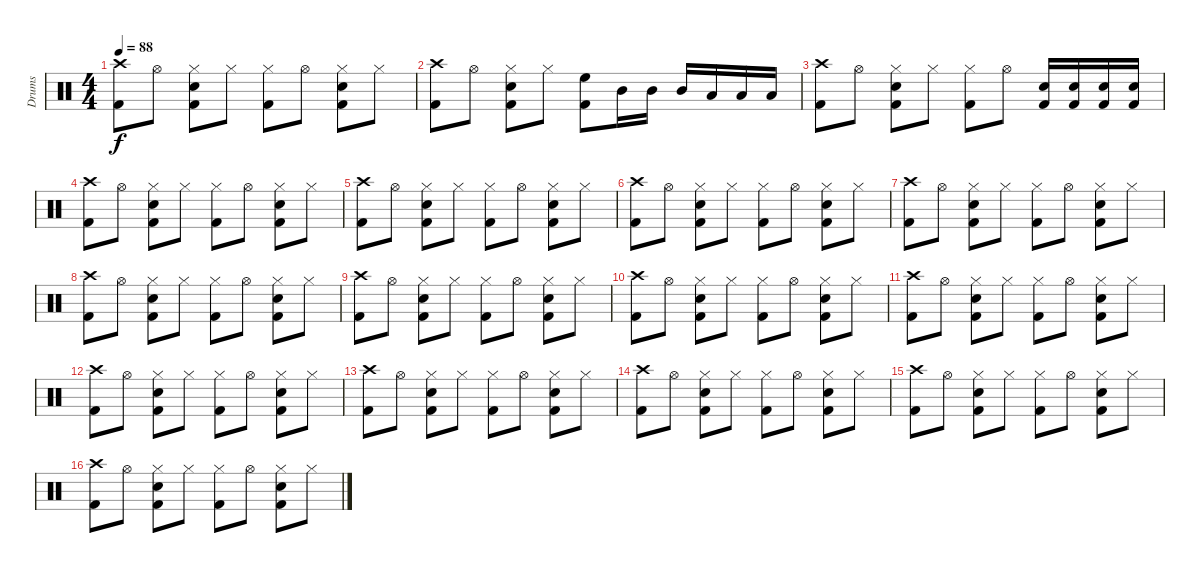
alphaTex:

\track ("Drums" "Drums") {instrument percussion}
\staff {score}
\articulation defaults
\ts (4 4)
\tempo 88
\clef neutral
\ks c
("Crash high (hit)" "Kick (hit) 2").8{dy f} "Hi-Hat (open)".8 ("Hi-Hat (closed)" "Snare (hit) 2" "Kick (hit) 2").8 "Hi-Hat (closed)".8 ("Hi-Hat (closed)" "Kick (hit) 2").8 "Hi-Hat (open)".8 ("Hi-Hat (closed)" "Snare (hit) 2" "Kick (hit) 2").8 "Hi-Hat (closed)".8 |
("Crash high (hit)" "Kick (hit) 2").8 "Hi-Hat (open)".8 ("Hi-Hat (closed)" "Snare (hit) 2" "Kick (hit) 2").8 "Hi-Hat (closed)".8 ("High Floor Tom (hit)" "Kick (hit) 2").8 "Mid Tom (hit)".16 "Mid Tom (hit)".16 "Mid Tom (hit)".16 "Low Tom (hit)".16 "Low Tom (hit)".16 "Low Tom (hit)".16 |
("Crash high (hit)" "Kick (hit) 2").8 "Hi-Hat (open)".8 ("Hi-Hat (closed)" "Snare (hit) 2" "Kick (hit) 2").8 "Hi-Hat (closed)".8 ("Hi-Hat (closed)" "Kick (hit) 2").8 "Hi-Hat (open)".8 ("Snare (hit) 2" "Kick (hit) 2").16 ("Snare (hit) 2" "Kick (hit) 2").16 ("Snare (hit) 2" "Kick (hit) 2").16 ("Snare (hit) 2" "Kick (hit) 2").16 |
("Crash high (hit)" "Kick (hit) 2").8 "Hi-Hat (open)".8 ("Hi-Hat (closed)" "Snare (hit) 2" "Kick (hit) 2").8 "Hi-Hat (closed)".8 ("Hi-Hat (closed)" "Kick (hit) 2").8 "Hi-Hat (open)".8 ("Hi-Hat (closed)" "Snare (hit) 2" "Kick (hit) 2").8 "Hi-Hat (closed)".8 |
("Crash high (hit)" "Kick (hit) 2").8 "Hi-Hat (open)".8 ("Hi-Hat (closed)" "Snare (hit) 2" "Kick (hit) 2").8 "Hi-Hat (closed)".8 ("Hi-Hat (closed)" "Kick (hit) 2").8 "Hi-Hat (open)".8 ("Hi-Hat (closed)" "Snare (hit) 2" "Kick (hit) 2").8 "Hi-Hat (closed)".8 |
("Crash high (hit)" "Kick (hit) 2").8 "Hi-Hat (open)".8 ("Hi-Hat (closed)" "Snare (hit) 2" "Kick (hit) 2").8 "Hi-Hat (closed)".8 ("Hi-Hat (closed)" "Kick (hit) 2").8 "Hi-Hat (open)".8 ("Hi-Hat (closed)" "Snare (hit) 2" "Kick (hit) 2").8 "Hi-Hat (closed)".8 |
("Crash high (hit)" "Kick (hit) 2").8 "Hi-Hat (open)".8 ("Hi-Hat (closed)" "Snare (hit) 2" "Kick (hit) 2").8 "Hi-Hat (closed)".8 ("Hi-Hat (closed)" "Kick (hit) 2").8 "Hi-Hat (open)".8 ("Hi-Hat (closed)" "Snare (hit) 2" "Kick (hit) 2").8 "Hi-Hat (closed)".8 |
("Crash high (hit)" "Kick (hit) 2").8 "Hi-Hat (open)".8 ("Hi-Hat (closed)" "Snare (hit) 2" "Kick (hit) 2").8 "Hi-Hat (closed)".8 ("Hi-Hat (closed)" "Kick (hit) 2").8 "Hi-Hat (open)".8 ("Hi-Hat (closed)" "Snare (hit) 2" "Kick (hit) 2").8 "Hi-Hat (closed)".8 |
("Crash high (hit)" "Kick (hit) 2").8 "Hi-Hat (open)".8 ("Hi-Hat (closed)" "Snare (hit) 2" "Kick (hit) 2").8 "Hi-Hat (closed)".8 ("Hi-Hat (closed)" "Kick (hit) 2").8 "Hi-Hat (open)".8 ("Hi-Hat (closed)" "Snare (hit) 2" "Kick (hit) 2").8 "Hi-Hat (closed)".8 |
("Crash high (hit)" "Kick (hit) 2").8 "Hi-Hat (open)".8 ("Hi-Hat (closed)" "Snare (hit) 2" "Kick (hit) 2").8 "Hi-Hat (closed)".8 ("Hi-Hat (closed)" "Kick (hit) 2").8 "Hi-Hat (open)".8 ("Hi-Hat (closed)" "Snare (hit) 2" "Kick (hit) 2").8 "Hi-Hat (closed)".8 |
("Crash high (hit)" "Kick (hit) 2").8 "Hi-Hat (open)".8 ("Hi-Hat (closed)" "Snare (hit) 2" "Kick (hit) 2").8 "Hi-Hat (closed)".8 ("Hi-Hat (closed)" "Kick (hit) 2").8 "Hi-Hat (open)".8 ("Hi-Hat (closed)" "Snare (hit) 2" "Kick (hit) 2").8 "Hi-Hat (closed)".8 |
("Crash high (hit)" "Kick (hit) 2").8 "Hi-Hat (open)".8 ("Hi-Hat (closed)" "Snare (hit) 2" "Kick (hit) 2").8 "Hi-Hat (closed)".8 ("Hi-Hat (closed)" "Kick (hit) 2").8 "Hi-Hat (open)".8 ("Hi-Hat (closed)" "Snare (hit) 2" "Kick (hit) 2").8 "Hi-Hat (closed)".8 |
("Crash high (hit)" "Kick (hit) 2").8 "Hi-Hat (open)".8 ("Hi-Hat (closed)" "Snare (hit) 2" "Kick (hit) 2").8 "Hi-Hat (closed)".8 ("Hi-Hat (closed)" "Kick (hit) 2").8 "Hi-Hat (open)".8 ("Hi-Hat (closed)" "Snare (hit) 2" "Kick (hit) 2").8 "Hi-Hat (closed)".8 |
("Crash high (hit)" "Kick (hit) 2").8 "Hi-Hat (open)".8 ("Hi-Hat (closed)" "Snare (hit) 2" "Kick (hit) 2").8 "Hi-Hat (closed)".8 ("Hi-Hat (closed)" "Kick (hit) 2").8 "Hi-Hat (open)".8 ("Hi-Hat (closed)" "Snare (hit) 2" "Kick (hit) 2").8 "Hi-Hat (closed)".8 |
("Crash high (hit)" "Kick (hit) 2").8 "Hi-Hat (open)".8 ("Hi-Hat (closed)" "Snare (hit) 2" "Kick (hit) 2").8 "Hi-Hat (closed)".8 ("Hi-Hat (closed)" "Kick (hit) 2").8 "Hi-Hat (open)".8 ("Hi-Hat (closed)" "Snare (hit) 2" "Kick (hit) 2").8 "Hi-Hat (closed)".8 |
("Crash high (hit)" "Kick (hit) 2").8 "Hi-Hat (open)".8 ("Hi-Hat (closed)" "Snare (hit) 2" "Kick (hit) 2").8 "Hi-Hat (closed)".8 ("Hi-Hat (closed)" "Kick (hit) 2").8 "Hi-Hat (open)".8 ("Hi-Hat (closed)" "Snare (hit) 2" "Kick (hit) 2").8 "Hi-Hat (closed)".8
